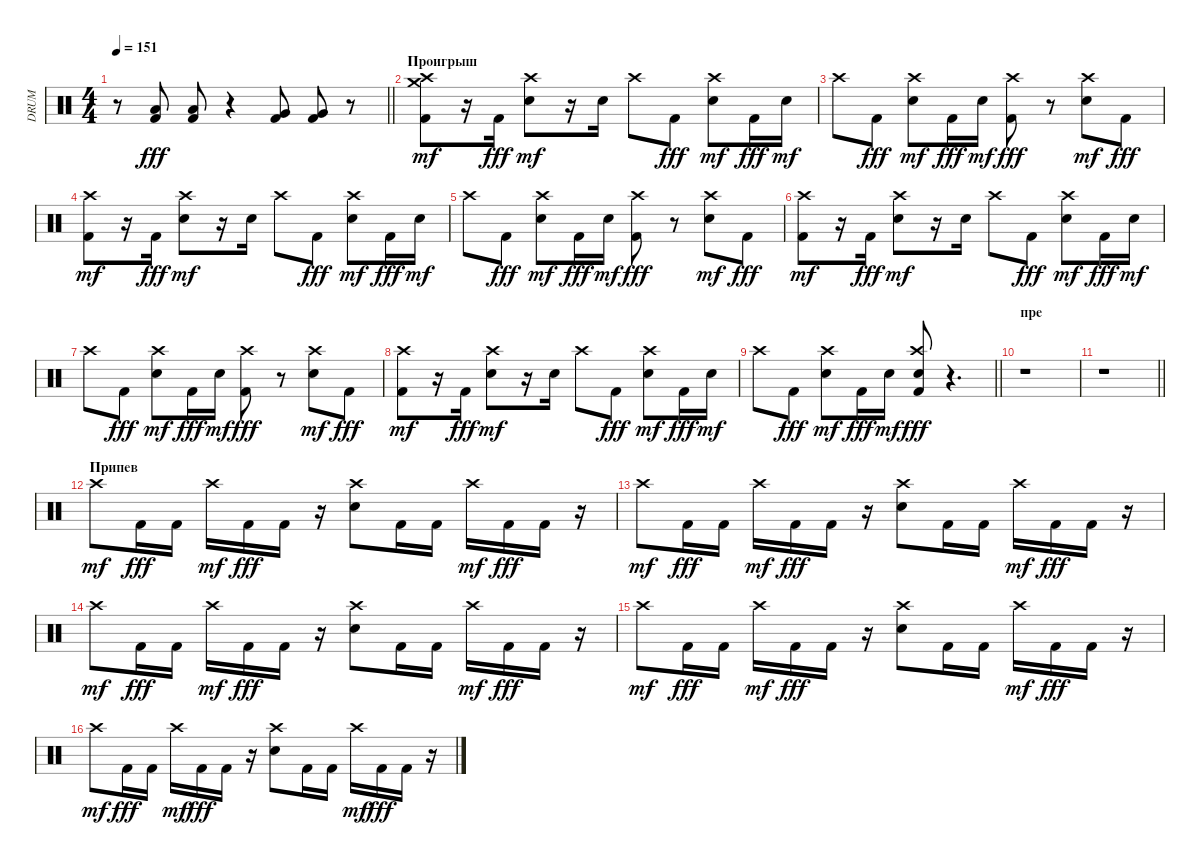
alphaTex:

\track ("DRUM" "DRUM") {instrument percussion}
\staff {score}
\articulation defaults
\ts (4 4)
\tempo 151
\clef neutral
\barLineRight lightlight
\ks c
r.8{dy mf} ("Low Floor Tom (hit)" "Kick (hit) 2").8{dy fff} ("Low Floor Tom (hit)" "Kick (hit) 2").8 r.4 ("Very Low Tom (hit)" "Kick (hit) 2").8 ("Kick (hit) 2" "Very Low Tom (hit)").8 r.8 |
\section ("" "Проигрыш")
("Kick (hit) 2" "Crash high (hit)" "Crash medium (hit)").8{dy mf} r.16 "Kick (hit) 2".16{dy fff} ("Electric Snare (hit)" "Crash high (hit)").8{dy mf} r.16 "Electric Snare (hit)".16 "Crash high (hit)".8 "Kick (hit) 2".8{dy fff} ("Electric Snare (hit)" "Crash high (hit)").8{dy mf} "Kick (hit) 2".16{dy fff} "Electric Snare (hit)".16{dy mf} |
"Crash high (hit)".8 "Kick (hit) 2".8{dy fff} ("Electric Snare (hit)" "Crash high (hit)").8{dy mf} "Kick (hit) 2".16{dy fff} "Electric Snare (hit)".16{dy mf} ("Crash high (hit)" "Kick (hit) 2").8{dy fff} r.8 ("Electric Snare (hit)" "Crash high (hit)").8{dy mf} "Kick (hit) 2".8{dy fff} |
("Kick (hit) 2" "Crash high (hit)").8{dy mf} r.16 "Kick (hit) 2".16{dy fff} ("Electric Snare (hit)" "Crash high (hit)").8{dy mf} r.16 "Electric Snare (hit)".16 "Crash high (hit)".8 "Kick (hit) 2".8{dy fff} ("Electric Snare (hit)" "Crash high (hit)").8{dy mf} "Kick (hit) 2".16{dy fff} "Electric Snare (hit)".16{dy mf} |
"Crash high (hit)".8 "Kick (hit) 2".8{dy fff} ("Electric Snare (hit)" "Crash high (hit)").8{dy mf} "Kick (hit) 2".16{dy fff} "Electric Snare (hit)".16{dy mf} ("Crash high (hit)" "Kick (hit) 2").8{dy fff} r.8 ("Electric Snare (hit)" "Crash high (hit)").8{dy mf} "Kick (hit) 2".8{dy fff} |
("Kick (hit) 2" "Crash high (hit)").8{dy mf} r.16 "Kick (hit) 2".16{dy fff} ("Electric Snare (hit)" "Crash high (hit)").8{dy mf} r.16 "Electric Snare (hit)".16 "Crash high (hit)".8 "Kick (hit) 2".8{dy fff} ("Electric Snare (hit)" "Crash high (hit)").8{dy mf} "Kick (hit) 2".16{dy fff} "Electric Snare (hit)".16{dy mf} |
"Crash high (hit)".8 "Kick (hit) 2".8{dy fff} ("Electric Snare (hit)" "Crash high (hit)").8{dy mf} "Kick (hit) 2".16{dy fff} "Electric Snare (hit)".16{dy mf} ("Crash high (hit)" "Kick (hit) 2").8{dy fff} r.8 ("Electric Snare (hit)" "Crash high (hit)").8{dy mf} "Kick (hit) 2".8{dy fff} |
("Kick (hit) 2" "Crash high (hit)").8{dy mf} r.16 "Kick (hit) 2".16{dy fff} ("Electric Snare (hit)" "Crash high (hit)").8{dy mf} r.16 "Electric Snare (hit)".16 "Crash high (hit)".8 "Kick (hit) 2".8{dy fff} ("Electric Snare (hit)" "Crash high (hit)").8{dy mf} "Kick (hit) 2".16{dy fff} "Electric Snare (hit)".16{dy mf} |
\barLineRight lightlight "Crash high (hit)".8 "Kick (hit) 2".8{dy fff}
("Electric Snare (hit)" "Crash high (hit)").8{dy mf} "Kick (hit) 2".16{dy fff} "Electric Snare (hit)".16{dy mf} ("Electric Snare (hit)" "Crash high (hit)" "Kick (hit) 2").8{dy fff} r.4{d} |
\section ("" "пре")
r.1 |
\barLineRight lightlight
r.1 |
\section ("" "Припев")
"Crash high (hit)".8{dy mf} "Kick (hit) 2".16{dy fff} "Kick (hit) 2".16 "Crash high (hit)".16{dy mf} "Kick (hit) 2".16{dy fff} "Kick (hit) 2".16 r.16 ("Crash high (hit)" "Electric Snare (hit)").8 "Kick (hit) 2".16 "Kick (hit) 2".16 "Crash high (hit)".16{dy mf} "Kick (hit) 2".16{dy fff} "Kick (hit) 2".16 r.16 |
"Crash high (hit)".8{dy mf} "Kick (hit) 2".16{dy fff} "Kick (hit) 2".16 "Crash high (hit)".16{dy mf} "Kick (hit) 2".16{dy fff} "Kick (hit) 2".16 r.16 ("Crash high (hit)" "Electric Snare (hit)").8 "Kick (hit) 2".16 "Kick (hit) 2".16 "Crash high (hit)".16{dy mf} "Kick (hit) 2".16{dy fff} "Kick (hit) 2".16 r.16 |
"Crash high (hit)".8{dy mf} "Kick (hit) 2".16{dy fff} "Kick (hit) 2".16 "Crash high (hit)".16{dy mf} "Kick (hit) 2".16{dy fff} "Kick (hit) 2".16 r.16 ("Crash high (hit)" "Electric Snare (hit)").8 "Kick (hit) 2".16 "Kick (hit) 2".16 "Crash high (hit)".16{dy mf} "Kick (hit) 2".16{dy fff} "Kick (hit) 2".16 r.16 |
"Crash high (hit)".8{dy mf} "Kick (hit) 2".16{dy fff} "Kick (hit) 2".16 "Crash high (hit)".16{dy mf} "Kick (hit) 2".16{dy fff} "Kick (hit) 2".16 r.16 ("Crash high (hit)" "Electric Snare (hit)").8 "Kick (hit) 2".16 "Kick (hit) 2".16 "Crash high (hit)".16{dy mf} "Kick (hit) 2".16{dy fff} "Kick (hit) 2".16 r.16 |
"Crash high (hit)".8{dy mf} "Kick (hit) 2".16{dy fff} "Kick (hit) 2".16 "Crash high (hit)".16{dy mf} "Kick (hit) 2".16{dy fff} "Kick (hit) 2".16 r.16 ("Crash high (hit)" "Electric Snare (hit)").8 "Kick (hit) 2".16 "Kick (hit) 2".16 "Crash high (hit)".16{dy mf} "Kick (hit) 2".16{dy fff} "Kick (hit) 2".16 r.16
